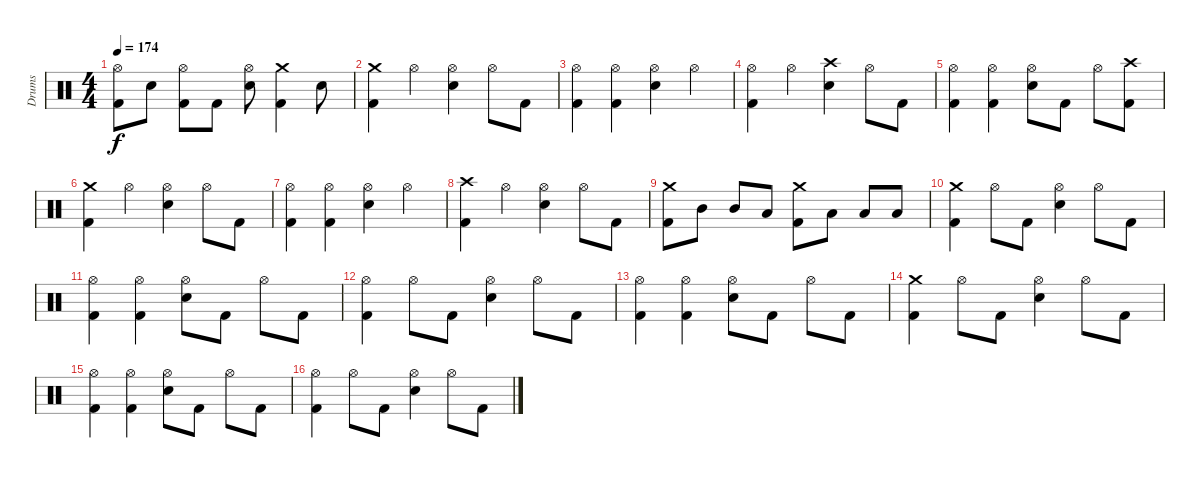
\track ("Drums" "Drums") {instrument percussion}
\staff {score}
\articulation defaults
\ts (4 4)
\tempo 174
\clef neutral
\ks c
("Hi-Hat (open)" "Kick (hit) 2").8{dy f} "Snare (hit) 2".8 ("Hi-Hat (open)" "Kick (hit) 2").8 "Kick (hit) 2".8 ("Hi-Hat (open)" "Snare (hit) 2").8 ("Crash medium (hit)" "Kick (hit) 2").4 "Snare (hit) 2".8 |
("Crash medium (hit)" "Kick (hit) 2").4 "Hi-Hat (open)".4 ("Hi-Hat (open)" "Snare (hit) 2").4 "Hi-Hat (open)".8 "Kick (hit) 2".8 |
("Hi-Hat (open)" "Kick (hit) 2").4 ("Hi-Hat (open)" "Kick (hit) 2").4 ("Hi-Hat (open)" "Snare (hit) 2").4 "Hi-Hat (open)".4 |
("Hi-Hat (open)" "Kick (hit) 2").4 "Hi-Hat (open)".4 ("Crash high (hit)" "Snare (hit) 2").4 "Hi-Hat (open)".8 "Kick (hit) 2".8 |
("Hi-Hat (open)" "Kick (hit) 2").4 ("Hi-Hat (open)" "Kick (hit) 2").4 ("Hi-Hat (open)" "Snare (hit) 2").8 "Kick (hit) 2".8 "Hi-Hat (open)".8 ("Crash high (hit)" "Kick (hit) 2").8 |
("Crash medium (hit)" "Kick (hit) 2").4 "Hi-Hat (open)".4 ("Hi-Hat (open)" "Snare (hit) 2").4 "Hi-Hat (open)".8 "Kick (hit) 2".8 |
("Hi-Hat (open)" "Kick (hit) 2").4 ("Hi-Hat (open)" "Kick (hit) 2").4 ("Hi-Hat (open)" "Snare (hit) 2").4 "Hi-Hat (open)".4 |
("Crash high (hit)" "Kick (hit) 2").4 "Hi-Hat (open)".4 ("Hi-Hat (open)" "Snare (hit) 2").4 "Hi-Hat (open)".8 "Kick (hit) 2".8 |
("Crash medium (hit)" "Kick (hit) 2").8 "Mid Tom (hit)".8 "Mid Tom (hit)".8 "Low Tom (hit)".8 ("Crash medium (hit)" "Kick (hit) 2").8 "Low Tom (hit)".8 "Low Tom (hit)".8 "Low Floor Tom (hit)".8 |
("Crash medium (hit)" "Kick (hit) 2").4 "Hi-Hat (open)".8 "Kick (hit) 2".8 ("Hi-Hat (open)" "Snare (hit) 2").4 "Hi-Hat (open)".8 "Kick (hit) 2".8 |
("Hi-Hat (open)" "Kick (hit) 2").4 ("Hi-Hat (open)" "Kick (hit) 2").4 ("Hi-Hat (open)" "Snare (hit) 2").8 "Kick (hit) 2".8 "Hi-Hat (open)".8 "Kick (hit) 2".8 |
("Hi-Hat (open)" "Kick (hit) 2").4 "Hi-Hat (open)".8 "Kick (hit) 2".8 ("Hi-Hat (open)" "Snare (hit) 2").4 "Hi-Hat (open)".8 "Kick (hit) 2".8 |
("Hi-Hat (open)" "Kick (hit) 2").4 ("Hi-Hat (open)" "Kick (hit) 2").4 ("Hi-Hat (open)" "Snare (hit) 2").8 "Kick (hit) 2".8 "Hi-Hat (open)".8 "Kick (hit) 2".8 |
("Crash medium (hit)" "Kick (hit) 2").4 "Hi-Hat (open)".8 "Kick (hit) 2".8 ("Hi-Hat (open)" "Snare (hit) 2").4 "Hi-Hat (open)".8 "Kick (hit) 2".8 |
("Hi-Hat (open)" "Kick (hit) 2").4 ("Hi-Hat (open)" "Kick (hit) 2").4 ("Hi-Hat (open)" "Snare (hit) 2").8 "Kick (hit) 2".8 "Hi-Hat (open)".8 "Kick (hit) 2".8 |
("Hi-Hat (open)" "Kick (hit) 2").4 "Hi-Hat (open)".8 "Kick (hit) 2".8 ("Hi-Hat (open)" "Snare (hit) 2").4 "Hi-Hat (open)".8 "Kick (hit) 2".8
